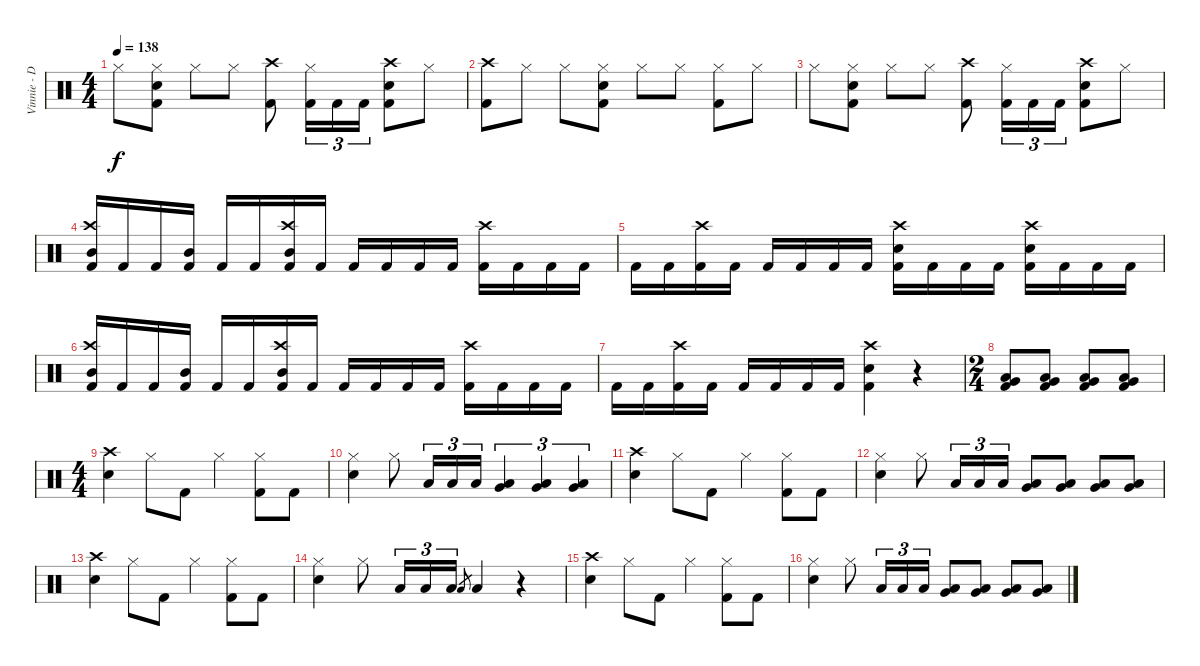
\track ("Vinnie - Drums" "Vinnie - D") {instrument percussion}
\staff {score}
\articulation defaults
\ts (4 4)
\tempo 138
\clef neutral
\ks c "Hi-Hat (closed)".8{dy f}
("Hi-Hat (closed)" "Electric Snare (hit)" "Kick (hit) 2").8 "Hi-Hat (closed)".8 "Hi-Hat (closed)".8 ("Crash high (hit)" "Kick (hit) 2").8 ("Hi-Hat (closed)" "Kick (hit) 2").16{tu (3 2)} "Kick (hit) 2".16{tu (3 2)} "Kick (hit) 2".16{tu (3 2)} ("Crash high (hit)" "Electric Snare (hit)" "Kick (hit) 2").8 "Hi-Hat (closed)".8 |
("Crash high (hit)" "Kick (hit) 2").8 "Hi-Hat (closed)".8 "Hi-Hat (closed)".8 ("Hi-Hat (closed)" "Electric Snare (hit)" "Kick (hit) 2").8 "Hi-Hat (closed)".8 "Hi-Hat (closed)".8 ("Hi-Hat (closed)" "Kick (hit) 2").8 "Hi-Hat (closed)".8 |
"Hi-Hat (closed)".8 ("Hi-Hat (closed)" "Electric Snare (hit)" "Kick (hit) 2").8 "Hi-Hat (closed)".8 "Hi-Hat (closed)".8 ("Crash high (hit)" "Kick (hit) 2").8 ("Hi-Hat (closed)" "Kick (hit) 2").16{tu (3 2)} "Kick (hit) 2".16{tu (3 2)} "Kick (hit) 2".16{tu (3 2)} ("Crash high (hit)" "Electric Snare (hit)" "Kick (hit) 2").8 "Hi-Hat (closed)".8 |
("Crash high (hit)" "Mid Tom (hit)" "Kick (hit) 2").16 "Kick (hit) 2".16 "Kick (hit) 2".16 ("Mid Tom (hit)" "Kick (hit) 2").16 "Kick (hit) 2".16 "Kick (hit) 2".16 ("Crash high (hit)" "Mid Tom (hit)" "Kick (hit) 2").16 "Kick (hit) 2".16 "Kick (hit) 2".16 "Kick (hit) 2".16 "Kick (hit) 2".16 "Kick (hit) 2".16 ("Crash high (hit)" "Kick (hit) 2").16 "Kick (hit) 2".16 "Kick (hit) 2".16 "Kick (hit) 2".16 |
"Kick (hit) 2".16 "Kick (hit) 2".16 ("Crash high (hit)" "Kick (hit) 2").16 "Kick (hit) 2".16 "Kick (hit) 2".16 "Kick (hit) 2".16 "Kick (hit) 2".16 "Kick (hit) 2".16 ("Crash high (hit)" "Electric Snare (hit)" "Kick (hit) 2").16 "Kick (hit) 2".16 "Kick (hit) 2".16 "Kick (hit) 2".16 ("Crash high (hit)" "Electric Snare (hit)" "Kick (hit) 2").16 "Kick (hit) 2".16 "Kick (hit) 2".16 "Kick (hit) 2".16 |
("Crash high (hit)" "Mid Tom (hit)" "Kick (hit) 2").16 "Kick (hit) 2".16 "Kick (hit) 2".16 ("Mid Tom (hit)" "Kick (hit) 2").16 "Kick (hit) 2".16 "Kick (hit) 2".16 ("Crash high (hit)" "Mid Tom (hit)" "Kick (hit) 2").16 "Kick (hit) 2".16 "Kick (hit) 2".16 "Kick (hit) 2".16 "Kick (hit) 2".16 "Kick (hit) 2".16 ("Crash high (hit)" "Kick (hit) 2").16 "Kick (hit) 2".16 "Kick (hit) 2".16 "Kick (hit) 2".16 |
"Kick (hit) 2".16 "Kick (hit) 2".16 ("Crash high (hit)" "Kick (hit) 2").16 "Kick (hit) 2".16 "Kick (hit) 2".16 "Kick (hit) 2".16 "Kick (hit) 2".16 "Kick (hit) 2".16 ("Crash high (hit)" "Electric Snare (hit)" "Kick (hit) 2").4 r.4 |
\ts (2 4)
("Low Tom (hit)" "Very Low Tom (hit)" "Kick (hit) 2").8 ("Low Tom (hit)" "Very Low Tom (hit)" "Kick (hit) 2").8 ("Low Tom (hit)" "Very Low Tom (hit)" "Kick (hit) 2").8 ("Low Tom (hit)" "Very Low Tom (hit)" "Kick (hit) 2").8 |
\ts (4 4)
("Crash high (hit)" "Electric Snare (hit)").4 "Hi-Hat (closed)".8 "Kick (hit) 2".8 "Hi-Hat (closed)".4 ("Hi-Hat (closed)" "Kick (hit) 2").8 "Kick (hit) 2".8 |
("Hi-Hat (closed)" "Electric Snare (hit)").4 "Hi-Hat (closed)".8 "Low Tom (hit)".16{tu (3 2)} "Low Tom (hit)".16{tu (3 2)} "Low Tom (hit)".16{tu (3 2)} ("Low Tom (hit)" "Very Low Tom (hit)").4{tu (3 2)} ("Low Tom (hit)" "Very Low Tom (hit)").4{tu (3 2)} ("Low Tom (hit)" "Very Low Tom (hit)").4{tu (3 2)} |
("Crash high (hit)" "Electric Snare (hit)").4 "Hi-Hat (closed)".8 "Kick (hit) 2".8 "Hi-Hat (closed)".4 ("Hi-Hat (closed)" "Kick (hit) 2").8 "Kick (hit) 2".8 |
("Hi-Hat (closed)" "Electric Snare (hit)").4 "Hi-Hat (closed)".8 "Low Tom (hit)".16{tu (3 2)} "Low Tom (hit)".16{tu (3 2)} "Low Tom (hit)".16{tu (3 2)} ("Low Tom (hit)" "Very Low Tom (hit)").8 ("Low Tom (hit)" "Very Low Tom (hit)").8 ("Low Tom (hit)" "Very Low Tom (hit)").8 ("Low Tom (hit)" "Very Low Tom (hit)").8 |
("Crash high (hit)" "Electric Snare (hit)").4 "Hi-Hat (closed)".8 "Kick (hit) 2".8 "Hi-Hat (closed)".4 ("Hi-Hat (closed)" "Kick (hit) 2").8 "Kick (hit) 2".8 |
("Hi-Hat (closed)" "Electric Snare (hit)").4 "Hi-Hat (closed)".8 "Low Tom (hit)".16{tu (3 2)} "Low Tom (hit)".16{tu (3 2)} "Low Tom (hit)".16{tu (3 2)} "Low Tom (hit)".8{gr} "Low Tom (hit)".4 r.4 |
("Crash high (hit)" "Electric Snare (hit)").4 "Hi-Hat (closed)".8 "Kick (hit) 2".8 "Hi-Hat (closed)".4 ("Hi-Hat (closed)" "Kick (hit) 2").8 "Kick (hit) 2".8 |
("Hi-Hat (closed)" "Electric Snare (hit)").4 "Hi-Hat (closed)".8 "Low Tom (hit)".16{tu (3 2)} "Low Tom (hit)".16{tu (3 2)} "Low Tom (hit)".16{tu (3 2)} ("Low Tom (hit)" "Very Low Tom (hit)").8 ("Low Tom (hit)" "Very Low Tom (hit)").8 ("Low Tom (hit)" "Very Low Tom (hit)").8 ("Low Tom (hit)" "Very Low Tom (hit)").8
